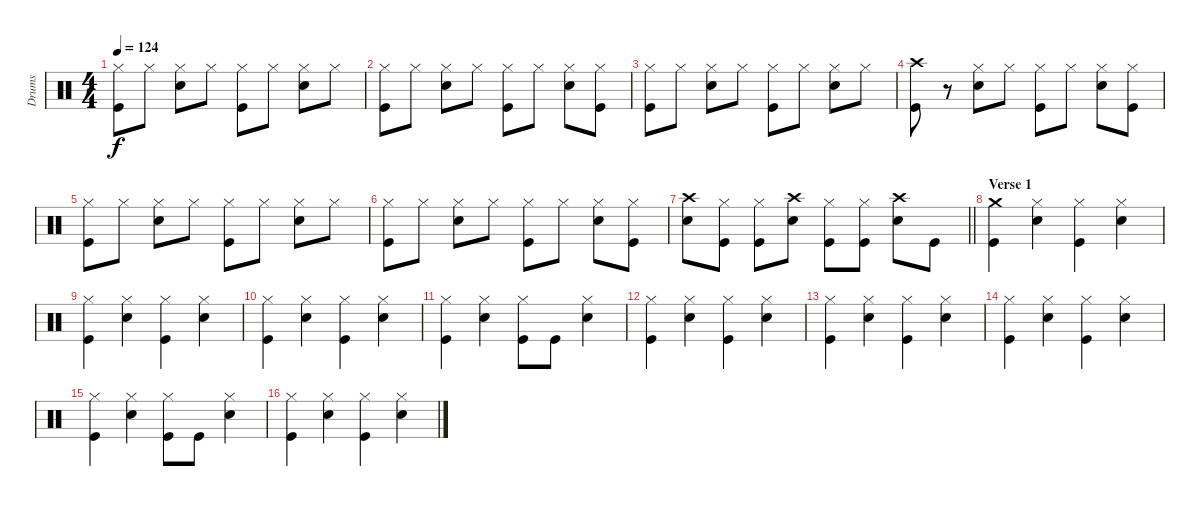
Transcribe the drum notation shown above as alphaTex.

\track ("Drums" "Drums") {instrument percussion}
\staff {score}
\articulation defaults
\ts (4 4)
\tempo 124
\clef neutral
\ks c
("Hi-Hat (closed)" "Kick (hit)").8{dy f} "Hi-Hat (closed)".8 ("Hi-Hat (closed)" "Snare (hit) 2").8 "Hi-Hat (closed)".8 ("Hi-Hat (closed)" "Kick (hit)").8 "Hi-Hat (closed)".8 ("Hi-Hat (closed)" "Snare (hit) 2").8 "Hi-Hat (closed)".8 |
("Hi-Hat (closed)" "Kick (hit)").8 "Hi-Hat (closed)".8 ("Hi-Hat (closed)" "Snare (hit) 2").8 "Hi-Hat (closed)".8 ("Hi-Hat (closed)" "Kick (hit)").8 "Hi-Hat (closed)".8 ("Hi-Hat (closed)" "Snare (hit) 2").8 ("Hi-Hat (closed)" "Kick (hit)").8 |
("Hi-Hat (closed)" "Kick (hit)").8 "Hi-Hat (closed)".8 ("Hi-Hat (closed)" "Snare (hit) 2").8 "Hi-Hat (closed)".8 ("Hi-Hat (closed)" "Kick (hit)").8 "Hi-Hat (closed)".8 ("Hi-Hat (closed)" "Snare (hit) 2").8 "Hi-Hat (closed)".8 |
("Crash high (hit)" "Kick (hit)").8 r.8 ("Hi-Hat (closed)" "Snare (hit) 2").8 "Hi-Hat (closed)".8 ("Hi-Hat (closed)" "Kick (hit)").8 "Hi-Hat (closed)".8 ("Hi-Hat (closed)" "Snare (hit) 2").8 ("Hi-Hat (closed)" "Kick (hit)").8 |
("Hi-Hat (closed)" "Kick (hit)").8 "Hi-Hat (closed)".8 ("Hi-Hat (closed)" "Snare (hit) 2").8 "Hi-Hat (closed)".8 ("Hi-Hat (closed)" "Kick (hit)").8 "Hi-Hat (closed)".8 ("Hi-Hat (closed)" "Snare (hit) 2").8 "Hi-Hat (closed)".8 |
("Hi-Hat (closed)" "Kick (hit)").8 "Hi-Hat (closed)".8 ("Hi-Hat (closed)" "Snare (hit) 2").8 "Hi-Hat (closed)".8 ("Hi-Hat (closed)" "Kick (hit)").8 "Hi-Hat (closed)".8 ("Hi-Hat (closed)" "Snare (hit) 2").8 ("Hi-Hat (closed)" "Kick (hit)").8 |
\barLineRight lightlight
("Crash high (hit)" "Snare (hit) 2").8 ("Hi-Hat (closed)" "Kick (hit)").8 ("Hi-Hat (closed)" "Kick (hit)").8 ("Crash high (hit)" "Snare (hit) 2").8 ("Hi-Hat (closed)" "Kick (hit)").8 ("Hi-Hat (closed)" "Kick (hit)").8 ("Crash high (hit)" "Snare (hit) 2").8 "Kick (hit)".8 |
\section ("" "Verse 1")
("Crash medium (hit)" "Kick (hit)").4 ("Hi-Hat (closed)" "Snare (hit) 2").4 ("Hi-Hat (closed)" "Kick (hit)").4 ("Hi-Hat (closed)" "Snare (hit) 2").4 |
("Hi-Hat (closed)" "Kick (hit)").4 ("Hi-Hat (closed)" "Snare (hit) 2").4 ("Hi-Hat (closed)" "Kick (hit)").4 ("Hi-Hat (closed)" "Snare (hit) 2").4 |
("Hi-Hat (closed)" "Kick (hit)").4 ("Hi-Hat (closed)" "Snare (hit) 2").4 ("Hi-Hat (closed)" "Kick (hit)").4 ("Hi-Hat (closed)" "Snare (hit) 2").4 |
("Hi-Hat (closed)" "Kick (hit)").4 ("Hi-Hat (closed)" "Snare (hit) 2").4 ("Hi-Hat (closed)" "Kick (hit)").8 "Kick (hit)".8 ("Hi-Hat (closed)" "Snare (hit) 2").4 |
("Hi-Hat (closed)" "Kick (hit)").4 ("Hi-Hat (closed)" "Snare (hit) 2").4 ("Hi-Hat (closed)" "Kick (hit)").4 ("Hi-Hat (closed)" "Snare (hit) 2").4 |
("Hi-Hat (closed)" "Kick (hit)").4 ("Hi-Hat (closed)" "Snare (hit) 2").4 ("Hi-Hat (closed)" "Kick (hit)").4 ("Hi-Hat (closed)" "Snare (hit) 2").4 |
("Hi-Hat (closed)" "Kick (hit)").4 ("Hi-Hat (closed)" "Snare (hit) 2").4 ("Hi-Hat (closed)" "Kick (hit)").4 ("Hi-Hat (closed)" "Snare (hit) 2").4 |
("Hi-Hat (closed)" "Kick (hit)").4 ("Hi-Hat (closed)" "Snare (hit) 2").4 ("Hi-Hat (closed)" "Kick (hit)").8 "Kick (hit)".8 ("Hi-Hat (closed)" "Snare (hit) 2").4 |
("Hi-Hat (closed)" "Kick (hit)").4 ("Hi-Hat (closed)" "Snare (hit) 2").4 ("Hi-Hat (closed)" "Kick (hit)").4 ("Hi-Hat (closed)" "Snare (hit) 2").4
